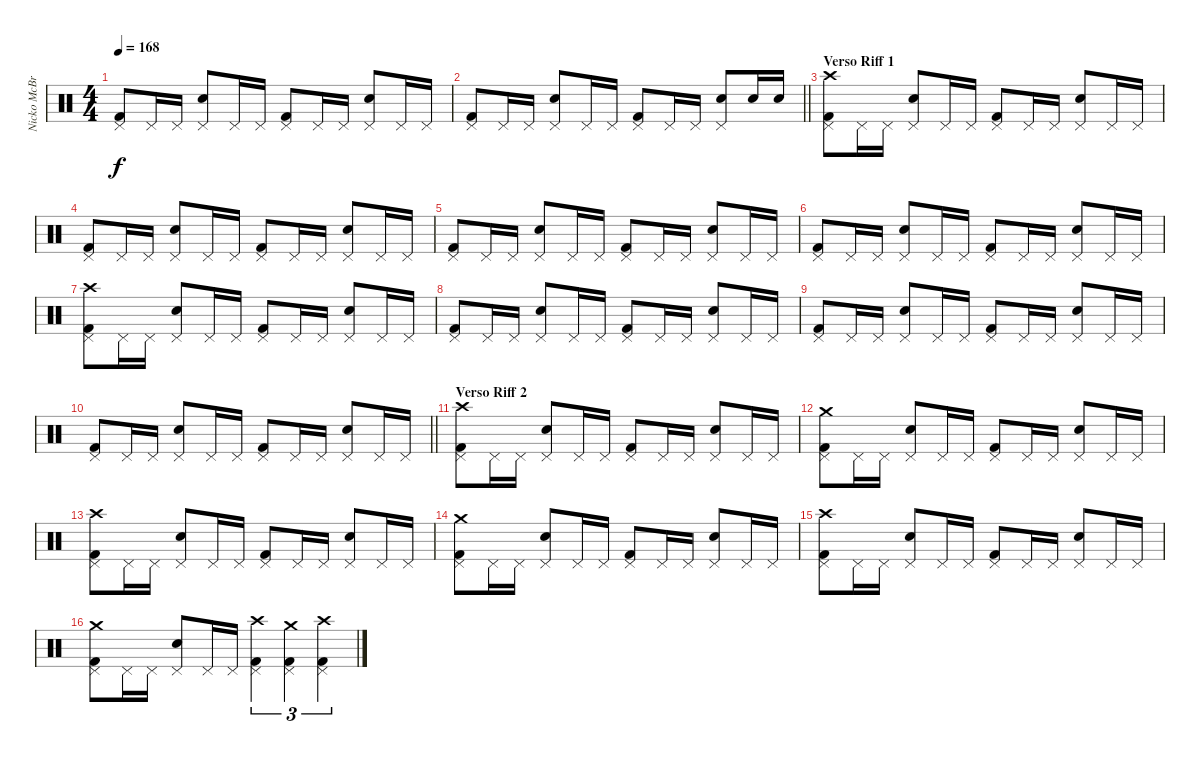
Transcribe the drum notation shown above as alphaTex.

\track ("Nicko McBrain" "Nicko McBr") {instrument percussion}
\staff {score}
\articulation defaults
\ts (4 4)
\tempo 168
\clef neutral
\ks c
("Kick (hit) 2" "Pedal Hi-Hat (hit)").8{dy f} "Pedal Hi-Hat (hit)".16 "Pedal Hi-Hat (hit)".16 ("Snare (hit) 2" "Pedal Hi-Hat (hit)").8 "Pedal Hi-Hat (hit)".16 "Pedal Hi-Hat (hit)".16 ("Kick (hit) 2" "Pedal Hi-Hat (hit)").8 "Pedal Hi-Hat (hit)".16 "Pedal Hi-Hat (hit)".16 ("Snare (hit) 2" "Pedal Hi-Hat (hit)").8 "Pedal Hi-Hat (hit)".16 "Pedal Hi-Hat (hit)".16 |
\barLineRight lightlight
("Kick (hit) 2" "Pedal Hi-Hat (hit)").8 "Pedal Hi-Hat (hit)".16 "Pedal Hi-Hat (hit)".16 ("Snare (hit) 2" "Pedal Hi-Hat (hit)").8 "Pedal Hi-Hat (hit)".16 "Pedal Hi-Hat (hit)".16 ("Kick (hit) 2" "Pedal Hi-Hat (hit)").8 "Pedal Hi-Hat (hit)".16 "Pedal Hi-Hat (hit)".16 ("Snare (hit) 2" "Pedal Hi-Hat (hit)").8 "Snare (hit) 2".16 "Snare (hit) 2".16 |
\section ("" "Verso Riff 1")
("Kick (hit) 2" "Pedal Hi-Hat (hit)" "Crash high (hit)").8 "Pedal Hi-Hat (hit)".16 "Pedal Hi-Hat (hit)".16 ("Snare (hit) 2" "Pedal Hi-Hat (hit)").8 "Pedal Hi-Hat (hit)".16 "Pedal Hi-Hat (hit)".16 ("Kick (hit) 2" "Pedal Hi-Hat (hit)").8 "Pedal Hi-Hat (hit)".16 "Pedal Hi-Hat (hit)".16 ("Snare (hit) 2" "Pedal Hi-Hat (hit)").8 "Pedal Hi-Hat (hit)".16 "Pedal Hi-Hat (hit)".16 |
("Kick (hit) 2" "Pedal Hi-Hat (hit)").8 "Pedal Hi-Hat (hit)".16 "Pedal Hi-Hat (hit)".16 ("Snare (hit) 2" "Pedal Hi-Hat (hit)").8 "Pedal Hi-Hat (hit)".16 "Pedal Hi-Hat (hit)".16 ("Kick (hit) 2" "Pedal Hi-Hat (hit)").8 "Pedal Hi-Hat (hit)".16 "Pedal Hi-Hat (hit)".16 ("Snare (hit) 2" "Pedal Hi-Hat (hit)").8 "Pedal Hi-Hat (hit)".16 "Pedal Hi-Hat (hit)".16 |
("Kick (hit) 2" "Pedal Hi-Hat (hit)").8 "Pedal Hi-Hat (hit)".16 "Pedal Hi-Hat (hit)".16 ("Snare (hit) 2" "Pedal Hi-Hat (hit)").8 "Pedal Hi-Hat (hit)".16 "Pedal Hi-Hat (hit)".16 ("Kick (hit) 2" "Pedal Hi-Hat (hit)").8 "Pedal Hi-Hat (hit)".16 "Pedal Hi-Hat (hit)".16 ("Snare (hit) 2" "Pedal Hi-Hat (hit)").8 "Pedal Hi-Hat (hit)".16 "Pedal Hi-Hat (hit)".16 |
("Kick (hit) 2" "Pedal Hi-Hat (hit)").8 "Pedal Hi-Hat (hit)".16 "Pedal Hi-Hat (hit)".16 ("Snare (hit) 2" "Pedal Hi-Hat (hit)").8 "Pedal Hi-Hat (hit)".16 "Pedal Hi-Hat (hit)".16 ("Kick (hit) 2" "Pedal Hi-Hat (hit)").8 "Pedal Hi-Hat (hit)".16 "Pedal Hi-Hat (hit)".16 ("Snare (hit) 2" "Pedal Hi-Hat (hit)").8 "Pedal Hi-Hat (hit)".16 "Pedal Hi-Hat (hit)".16 |
("Kick (hit) 2" "Pedal Hi-Hat (hit)" "Crash high (hit)").8 "Pedal Hi-Hat (hit)".16 "Pedal Hi-Hat (hit)".16 ("Snare (hit) 2" "Pedal Hi-Hat (hit)").8 "Pedal Hi-Hat (hit)".16 "Pedal Hi-Hat (hit)".16 ("Kick (hit) 2" "Pedal Hi-Hat (hit)").8 "Pedal Hi-Hat (hit)".16 "Pedal Hi-Hat (hit)".16 ("Snare (hit) 2" "Pedal Hi-Hat (hit)").8 "Pedal Hi-Hat (hit)".16 "Pedal Hi-Hat (hit)".16 |
("Kick (hit) 2" "Pedal Hi-Hat (hit)").8 "Pedal Hi-Hat (hit)".16 "Pedal Hi-Hat (hit)".16 ("Snare (hit) 2" "Pedal Hi-Hat (hit)").8 "Pedal Hi-Hat (hit)".16 "Pedal Hi-Hat (hit)".16 ("Kick (hit) 2" "Pedal Hi-Hat (hit)").8 "Pedal Hi-Hat (hit)".16 "Pedal Hi-Hat (hit)".16 ("Snare (hit) 2" "Pedal Hi-Hat (hit)").8 "Pedal Hi-Hat (hit)".16 "Pedal Hi-Hat (hit)".16 |
("Kick (hit) 2" "Pedal Hi-Hat (hit)").8 "Pedal Hi-Hat (hit)".16 "Pedal Hi-Hat (hit)".16 ("Snare (hit) 2" "Pedal Hi-Hat (hit)").8 "Pedal Hi-Hat (hit)".16 "Pedal Hi-Hat (hit)".16 ("Kick (hit) 2" "Pedal Hi-Hat (hit)").8 "Pedal Hi-Hat (hit)".16 "Pedal Hi-Hat (hit)".16 ("Snare (hit) 2" "Pedal Hi-Hat (hit)").8 "Pedal Hi-Hat (hit)".16 "Pedal Hi-Hat (hit)".16 |
\barLineRight lightlight
("Kick (hit) 2" "Pedal Hi-Hat (hit)").8 "Pedal Hi-Hat (hit)".16 "Pedal Hi-Hat (hit)".16 ("Snare (hit) 2" "Pedal Hi-Hat (hit)").8 "Pedal Hi-Hat (hit)".16 "Pedal Hi-Hat (hit)".16 ("Kick (hit) 2" "Pedal Hi-Hat (hit)").8 "Pedal Hi-Hat (hit)".16 "Pedal Hi-Hat (hit)".16 ("Snare (hit) 2" "Pedal Hi-Hat (hit)").8 "Pedal Hi-Hat (hit)".16 "Pedal Hi-Hat (hit)".16 |
\section ("" "Verso Riff 2")
("Kick (hit) 2" "Pedal Hi-Hat (hit)" "Crash high (hit)").8 "Pedal Hi-Hat (hit)".16 "Pedal Hi-Hat (hit)".16 ("Snare (hit) 2" "Pedal Hi-Hat (hit)").8 "Pedal Hi-Hat (hit)".16 "Pedal Hi-Hat (hit)".16 ("Kick (hit) 2" "Pedal Hi-Hat (hit)").8 "Pedal Hi-Hat (hit)".16 "Pedal Hi-Hat (hit)".16 ("Snare (hit) 2" "Pedal Hi-Hat (hit)").8 "Pedal Hi-Hat (hit)".16 "Pedal Hi-Hat (hit)".16 |
("Kick (hit) 2" "Pedal Hi-Hat (hit)" "Crash medium (hit)").8 "Pedal Hi-Hat (hit)".16 "Pedal Hi-Hat (hit)".16 ("Snare (hit) 2" "Pedal Hi-Hat (hit)").8 "Pedal Hi-Hat (hit)".16 "Pedal Hi-Hat (hit)".16 ("Kick (hit) 2" "Pedal Hi-Hat (hit)").8 "Pedal Hi-Hat (hit)".16 "Pedal Hi-Hat (hit)".16 ("Snare (hit) 2" "Pedal Hi-Hat (hit)").8 "Pedal Hi-Hat (hit)".16 "Pedal Hi-Hat (hit)".16 |
("Kick (hit) 2" "Pedal Hi-Hat (hit)" "Crash high (hit)").8 "Pedal Hi-Hat (hit)".16 "Pedal Hi-Hat (hit)".16 ("Snare (hit) 2" "Pedal Hi-Hat (hit)").8 "Pedal Hi-Hat (hit)".16 "Pedal Hi-Hat (hit)".16 ("Kick (hit) 2" "Pedal Hi-Hat (hit)").8 "Pedal Hi-Hat (hit)".16 "Pedal Hi-Hat (hit)".16 ("Snare (hit) 2" "Pedal Hi-Hat (hit)").8 "Pedal Hi-Hat (hit)".16 "Pedal Hi-Hat (hit)".16 |
("Kick (hit) 2" "Pedal Hi-Hat (hit)" "Crash medium (hit)").8 "Pedal Hi-Hat (hit)".16 "Pedal Hi-Hat (hit)".16 ("Snare (hit) 2" "Pedal Hi-Hat (hit)").8 "Pedal Hi-Hat (hit)".16 "Pedal Hi-Hat (hit)".16 ("Kick (hit) 2" "Pedal Hi-Hat (hit)").8 "Pedal Hi-Hat (hit)".16 "Pedal Hi-Hat (hit)".16 ("Snare (hit) 2" "Pedal Hi-Hat (hit)").8 "Pedal Hi-Hat (hit)".16 "Pedal Hi-Hat (hit)".16 |
("Kick (hit) 2" "Pedal Hi-Hat (hit)" "Crash high (hit)").8 "Pedal Hi-Hat (hit)".16 "Pedal Hi-Hat (hit)".16 ("Snare (hit) 2" "Pedal Hi-Hat (hit)").8 "Pedal Hi-Hat (hit)".16 "Pedal Hi-Hat (hit)".16 ("Kick (hit) 2" "Pedal Hi-Hat (hit)").8 "Pedal Hi-Hat (hit)".16 "Pedal Hi-Hat (hit)".16 ("Snare (hit) 2" "Pedal Hi-Hat (hit)").8 "Pedal Hi-Hat (hit)".16 "Pedal Hi-Hat (hit)".16 |
("Kick (hit) 2" "Pedal Hi-Hat (hit)" "Crash medium (hit)").8 "Pedal Hi-Hat (hit)".16 "Pedal Hi-Hat (hit)".16 ("Snare (hit) 2" "Pedal Hi-Hat (hit)").8 "Pedal Hi-Hat (hit)".16 "Pedal Hi-Hat (hit)".16 ("Kick (hit) 2" "Pedal Hi-Hat (hit)" "Crash high (hit)").4{tu (3 2)} ("Kick (hit) 2" "Pedal Hi-Hat (hit)" "Crash medium (hit)").4{tu (3 2)} ("Kick (hit) 2" "Pedal Hi-Hat (hit)" "Crash high (hit)").4{tu (3 2)}
